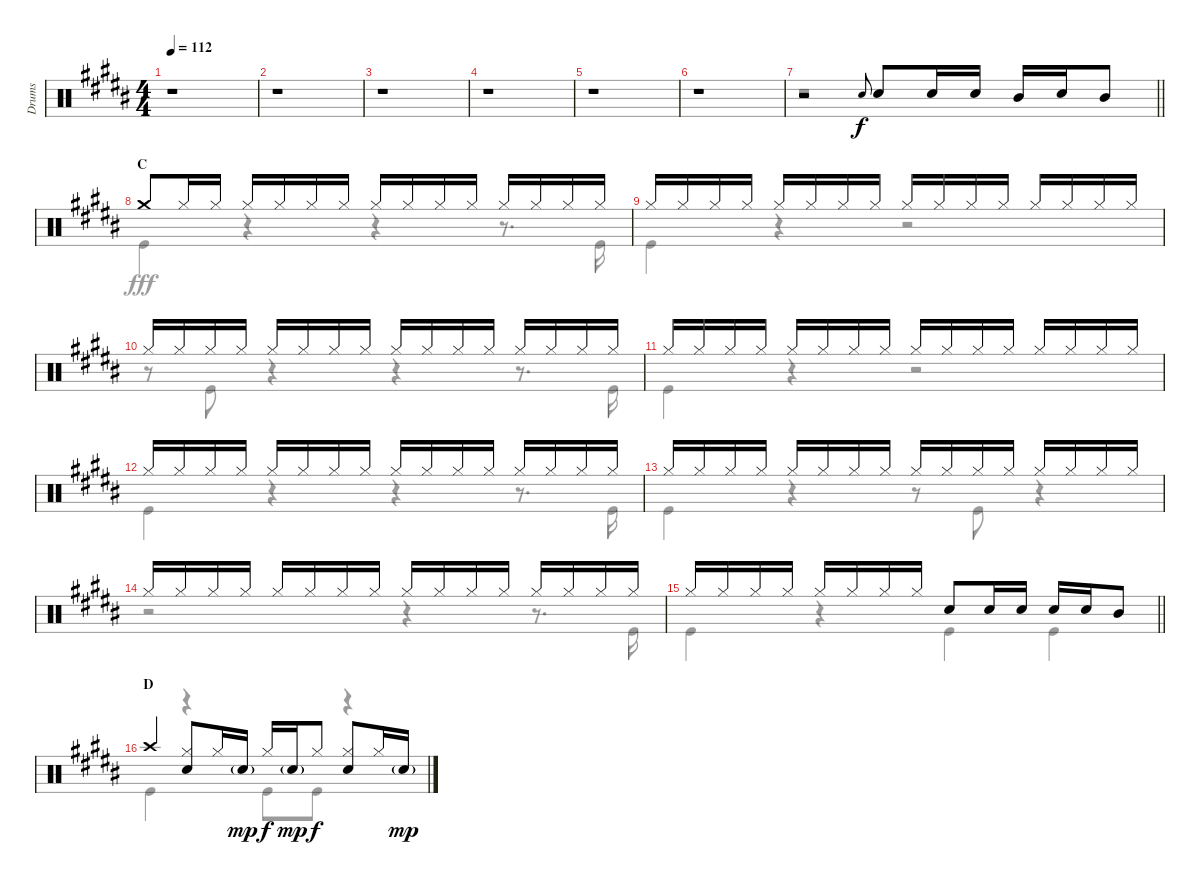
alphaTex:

\track ("Drums" "Drums") {instrument percussion}
\staff {score}
\articulation defaults
\voice
\ts (4 4)
\tempo 112
\clef neutral
\ks b
r.1{dy f} |
r.1 |
r.1 |
r.1 |
r.1 |
r.1 |
\barLineRight lightlight
r.2 "Snare (hit) 2".8{gr onbeat} "Snare (hit) 2".8 "Snare (hit) 2".16 "Snare (hit) 2".16 "Mid Tom (hit)".16 "Snare (hit) 2".16 "Mid Tom (hit)".8 |
\section ("" "C")
"Crash medium (hit)".8 "Hi-Hat (closed)".16 "Hi-Hat (closed)".16 "Hi-Hat (closed)".16 "Hi-Hat (closed)".16 "Hi-Hat (closed)".16 "Hi-Hat (closed)".16 "Hi-Hat (closed)".16 "Hi-Hat (closed)".16 "Hi-Hat (closed)".16 "Hi-Hat (closed)".16 "Hi-Hat (closed)".16 "Hi-Hat (closed)".16 "Hi-Hat (closed)".16 "Hi-Hat (closed)".16 |
"Hi-Hat (closed)".16 "Hi-Hat (closed)".16 "Hi-Hat (closed)".16 "Hi-Hat (closed)".16 "Hi-Hat (closed)".16 "Hi-Hat (closed)".16 "Hi-Hat (closed)".16 "Hi-Hat (closed)".16 "Hi-Hat (closed)".16 "Hi-Hat (closed)".16 "Hi-Hat (closed)".16 "Hi-Hat (closed)".16 "Hi-Hat (closed)".16 "Hi-Hat (closed)".16 "Hi-Hat (closed)".16 "Hi-Hat (closed)".16 |
"Hi-Hat (closed)".16 "Hi-Hat (closed)".16 "Hi-Hat (closed)".16 "Hi-Hat (closed)".16 "Hi-Hat (closed)".16 "Hi-Hat (closed)".16 "Hi-Hat (closed)".16 "Hi-Hat (closed)".16 "Hi-Hat (closed)".16 "Hi-Hat (closed)".16 "Hi-Hat (closed)".16 "Hi-Hat (closed)".16 "Hi-Hat (closed)".16 "Hi-Hat (closed)".16 "Hi-Hat (closed)".16 "Hi-Hat (closed)".16 |
"Hi-Hat (closed)".16 "Hi-Hat (closed)".16 "Hi-Hat (closed)".16 "Hi-Hat (closed)".16 "Hi-Hat (closed)".16 "Hi-Hat (closed)".16 "Hi-Hat (closed)".16 "Hi-Hat (closed)".16 "Hi-Hat (closed)".16 "Hi-Hat (closed)".16 "Hi-Hat (closed)".16 "Hi-Hat (closed)".16 "Hi-Hat (closed)".16 "Hi-Hat (closed)".16 "Hi-Hat (closed)".16 "Hi-Hat (closed)".16 |
"Hi-Hat (closed)".16 "Hi-Hat (closed)".16 "Hi-Hat (closed)".16 "Hi-Hat (closed)".16 "Hi-Hat (closed)".16 "Hi-Hat (closed)".16 "Hi-Hat (closed)".16 "Hi-Hat (closed)".16 "Hi-Hat (closed)".16 "Hi-Hat (closed)".16 "Hi-Hat (closed)".16 "Hi-Hat (closed)".16 "Hi-Hat (closed)".16 "Hi-Hat (closed)".16 "Hi-Hat (closed)".16 "Hi-Hat (closed)".16 |
"Hi-Hat (closed)".16 "Hi-Hat (closed)".16 "Hi-Hat (closed)".16 "Hi-Hat (closed)".16 "Hi-Hat (closed)".16 "Hi-Hat (closed)".16 "Hi-Hat (closed)".16 "Hi-Hat (closed)".16 "Hi-Hat (closed)".16 "Hi-Hat (closed)".16 "Hi-Hat (closed)".16 "Hi-Hat (closed)".16 "Hi-Hat (closed)".16 "Hi-Hat (closed)".16 "Hi-Hat (closed)".16 "Hi-Hat (closed)".16 |
"Hi-Hat (closed)".16 "Hi-Hat (closed)".16 "Hi-Hat (closed)".16 "Hi-Hat (closed)".16 "Hi-Hat (closed)".16 "Hi-Hat (closed)".16 "Hi-Hat (closed)".16 "Hi-Hat (closed)".16 "Hi-Hat (closed)".16 "Hi-Hat (closed)".16 "Hi-Hat (closed)".16 "Hi-Hat (closed)".16 "Hi-Hat (closed)".16 "Hi-Hat (closed)".16 "Hi-Hat (closed)".16 "Hi-Hat (closed)".16 |
\barLineRight lightlight "Hi-Hat (closed)".16 "Hi-Hat (closed)".16 "Hi-Hat (closed)".16 "Hi-Hat (closed)".16 "Hi-Hat (closed)".16 "Hi-Hat (closed)".16 "Hi-Hat (closed)".16 "Hi-Hat (closed)".16 "Snare (hit) 2".8 "Snare (hit) 2".16 "Snare (hit) 2".16 "Snare (hit) 2".16 "Snare (hit) 2".16 "Mid Tom (hit)".8
|
\section ("" "D")
"Crash high (hit)".4 ("Hi-Hat (closed)" "Snare (hit) 2").8 "Hi-Hat (closed)".16 "Snare (hit) 2"{g}.16{dy mp} "Hi-Hat (closed)".16{dy f} "Snare (hit) 2"{g}.16{dy mp} "Hi-Hat (closed)".8{dy f} ("Hi-Hat (closed)" "Snare (hit) 2").8 "Hi-Hat (closed)".16 "Snare (hit) 2"{g}.16{dy mp}
\voice
\clef neutral
\ottava regular
\simile none
\ks b
r.1{dy fff} |
r.1 |
r.1 |
r.1 |
r.1 |
r.1 |
\barLineRight lightlight
r.1 |
"Kick (hit)".4 r.4 r.4 r.8{d} "Kick (hit)".16 |
"Kick (hit)".4 r.4 r.2 |
r.8 "Kick (hit)".8 r.4 r.4 r.8{d} "Kick (hit)".16 |
"Kick (hit)".4 r.4 r.2 |
"Kick (hit)".4 r.4 r.4 r.8{d} "Kick (hit)".16 |
"Kick (hit)".4 r.4 r.8 "Kick (hit)".8 r.4 |
r.2 r.4 r.8{d} "Kick (hit)".16 |
\barLineRight lightlight "Kick (hit)".4
r.4 "Kick (hit)".4 "Kick (hit)".4 |
"Kick (hit)".4 r.4 "Kick (hit)".8 "Kick (hit)".8 r.4
